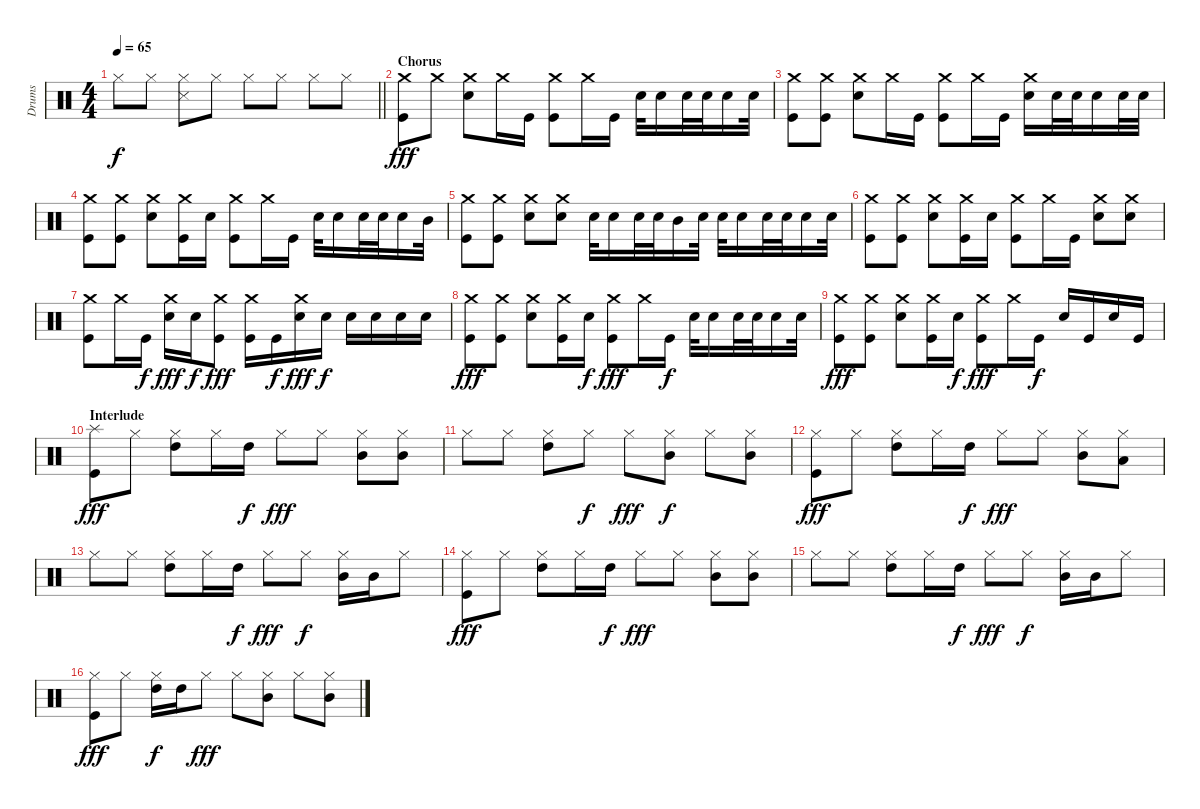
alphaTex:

\track ("Drums" "Drums") {instrument percussion}
\staff {score}
\articulation defaults
\ts (4 4)
\tempo 65
\clef neutral
\barLineRight lightlight
\ks c "Hi-Hat (closed)".8{dy f} "Hi-Hat (closed)".8
("Hi-Hat (closed)" "Snare (side stick) 3").8 "Hi-Hat (closed)".8 "Hi-Hat (closed)".8 "Hi-Hat (closed)".8 "Hi-Hat (closed)".8 "Hi-Hat (closed)".8 |
\section ("" "Chorus")
("Crash medium (hit)" "Kick (hit)").8{dy fff} "Crash medium (hit)".8 ("Crash medium (hit)" "Electric Snare (hit)").8 "Crash medium (hit)".16 "Kick (hit)".16 ("Crash medium (hit)" "Kick (hit)").8 "Crash medium (hit)".16 "Kick (hit)".16 "Electric Snare (hit)".32 "Electric Snare (hit)".16 "Electric Snare (hit)".32 "Electric Snare (hit)".32 "Electric Snare (hit)".16 "Electric Snare (hit)".32 |
("Crash medium (hit)" "Kick (hit)").8 ("Crash medium (hit)" "Kick (hit)").8 ("Crash medium (hit)" "Electric Snare (hit)").8 "Crash medium (hit)".16 "Kick (hit)".16 ("Crash medium (hit)" "Kick (hit)").8 "Crash medium (hit)".16 "Kick (hit)".16 ("Crash medium (hit)" "Electric Snare (hit)").16 "Electric Snare (hit)".32 "Electric Snare (hit)".32 "Electric Snare (hit)".16 "Electric Snare (hit)".32 "Electric Snare (hit)".32 |
("Crash medium (hit)" "Kick (hit)").8 ("Crash medium (hit)" "Kick (hit)").8 ("Crash medium (hit)" "Electric Snare (hit)").8 ("Crash medium (hit)" "Kick (hit)").16 "Electric Snare (hit)".16 ("Crash medium (hit)" "Kick (hit)").8 "Crash medium (hit)".16 "Kick (hit)".16 "Electric Snare (hit)".32 "Electric Snare (hit)".16 "Electric Snare (hit)".32 "Electric Snare (hit)".32 "Electric Snare (hit)".16 "Mid Tom (hit)".32 |
("Crash medium (hit)" "Kick (hit)").8 ("Crash medium (hit)" "Kick (hit)").8 ("Crash medium (hit)" "Electric Snare (hit)").8 ("Crash medium (hit)" "Electric Snare (hit)").8 "Electric Snare (hit)".32 "Electric Snare (hit)".16 "Electric Snare (hit)".32 "Electric Snare (hit)".32 "Mid Tom (hit)".16 "Electric Snare (hit)".32 "Electric Snare (hit)".32 "Electric Snare (hit)".16 "Electric Snare (hit)".32 "Electric Snare (hit)".32 "Electric Snare (hit)".16 "Electric Snare (hit)".32 |
("Crash medium (hit)" "Kick (hit)").8 ("Crash medium (hit)" "Kick (hit)").8 ("Crash medium (hit)" "Electric Snare (hit)").8 ("Crash medium (hit)" "Kick (hit)").16 "Electric Snare (hit)".16 ("Crash medium (hit)" "Kick (hit)").8 "Crash medium (hit)".16 "Kick (hit)".16 ("Crash medium (hit)" "Electric Snare (hit)").8 ("Crash medium (hit)" "Electric Snare (hit)").8 |
("Crash medium (hit)" "Kick (hit)").8 "Crash medium (hit)".16 "Kick (hit)".16{dy f} ("Crash medium (hit)" "Electric Snare (hit)").16{dy fff} "Electric Snare (hit)".16{dy f} ("Crash medium (hit)" "Kick (hit)").8{dy fff} ("Crash medium (hit)" "Kick (hit)").16 "Kick (hit)".16{dy f} ("Crash medium (hit)" "Electric Snare (hit)").16{dy fff} "Electric Snare (hit)".16{dy f} "Electric Snare (hit)".16 "Electric Snare (hit)".16 "Electric Snare (hit)".16 "Electric Snare (hit)".16 |
("Crash medium (hit)" "Kick (hit)").8{dy fff} ("Crash medium (hit)" "Kick (hit)").8 ("Crash medium (hit)" "Electric Snare (hit)").8 ("Crash medium (hit)" "Kick (hit)").16 "Electric Snare (hit)".16{dy f} ("Crash medium (hit)" "Kick (hit)").8{dy fff} "Crash medium (hit)".16 "Kick (hit)".16{dy f} "Electric Snare (hit)".32 "Electric Snare (hit)".16 "Electric Snare (hit)".32 "Electric Snare (hit)".32 "Electric Snare (hit)".16 "Electric Snare (hit)".32 |
("Crash medium (hit)" "Kick (hit)").8{dy fff} ("Crash medium (hit)" "Kick (hit)").8 ("Crash medium (hit)" "Electric Snare (hit)").8 ("Crash medium (hit)" "Kick (hit)").16 "Electric Snare (hit)".16{dy f} ("Crash medium (hit)" "Kick (hit)").8{dy fff} "Crash medium (hit)".16 "Kick (hit)".16{dy f} "Electric Snare (hit)".16 "Kick (hit)".16 "Electric Snare (hit)".16 "Kick (hit)".16 |
\section ("" "Interlude")
("Splash (hit)" "Kick (hit)").8{dy fff} "Hi-Hat (closed)".8 ("Hi-Hat (closed)" "High Tom (hit)").8 "Hi-Hat (closed)".16 "High Tom (hit)".16{dy f} "Hi-Hat (closed)".8{dy fff} "Hi-Hat (closed)".8 ("Hi-Hat (closed)" "Mid Tom (hit)").8 ("Hi-Hat (closed)" "Mid Tom (hit)").8 |
"Hi-Hat (closed)".8 "Hi-Hat (closed)".8 ("Hi-Hat (closed)" "High Tom (hit)").8 "Hi-Hat (closed)".8{dy f} "Hi-Hat (closed)".8{dy fff} ("Hi-Hat (closed)" "Mid Tom (hit)").8{dy f} "Hi-Hat (closed)".8 ("Hi-Hat (closed)" "Mid Tom (hit)").8 |
("Hi-Hat (closed)" "Kick (hit)").8{dy fff} "Hi-Hat (closed)".8 ("Hi-Hat (closed)" "High Tom (hit)").8 "Hi-Hat (closed)".16 "High Tom (hit)".16{dy f} "Hi-Hat (closed)".8{dy fff} "Hi-Hat (closed)".8 ("Hi-Hat (closed)" "Mid Tom (hit)").8 ("Hi-Hat (closed)" "Low Tom (hit)").8 |
"Hi-Hat (closed)".8 "Hi-Hat (closed)".8 ("Hi-Hat (closed)" "High Tom (hit)").8 "Hi-Hat (closed)".16 "High Tom (hit)".16{dy f} "Hi-Hat (closed)".8{dy fff} "Hi-Hat (closed)".8{dy f} ("Hi-Hat (closed)" "Mid Tom (hit)").16 "Mid Tom (hit)".16 "Hi-Hat (closed)".8 |
("Hi-Hat (closed)" "Kick (hit)").8{dy fff} "Hi-Hat (closed)".8 ("Hi-Hat (closed)" "High Tom (hit)").8 "Hi-Hat (closed)".16 "High Tom (hit)".16{dy f} "Hi-Hat (closed)".8{dy fff} "Hi-Hat (closed)".8 ("Hi-Hat (closed)" "Mid Tom (hit)").8 ("Hi-Hat (closed)" "Mid Tom (hit)").8 |
"Hi-Hat (closed)".8 "Hi-Hat (closed)".8 ("Hi-Hat (closed)" "High Tom (hit)").8 "Hi-Hat (closed)".16 "High Tom (hit)".16{dy f} "Hi-Hat (closed)".8{dy fff} "Hi-Hat (closed)".8{dy f} ("Hi-Hat (closed)" "Mid Tom (hit)").16 "Mid Tom (hit)".16 "Hi-Hat (closed)".8 |
("Hi-Hat (closed)" "Kick (hit)").8{dy fff} "Hi-Hat (closed)".8 ("Hi-Hat (closed)" "High Tom (hit)").16{dy f} "High Tom (hit)".16 "Hi-Hat (closed)".8{dy fff} "Hi-Hat (closed)".8 ("Hi-Hat (closed)" "Mid Tom (hit)").8 "Hi-Hat (closed)".8 ("Hi-Hat (closed)" "Mid Tom (hit)").8
